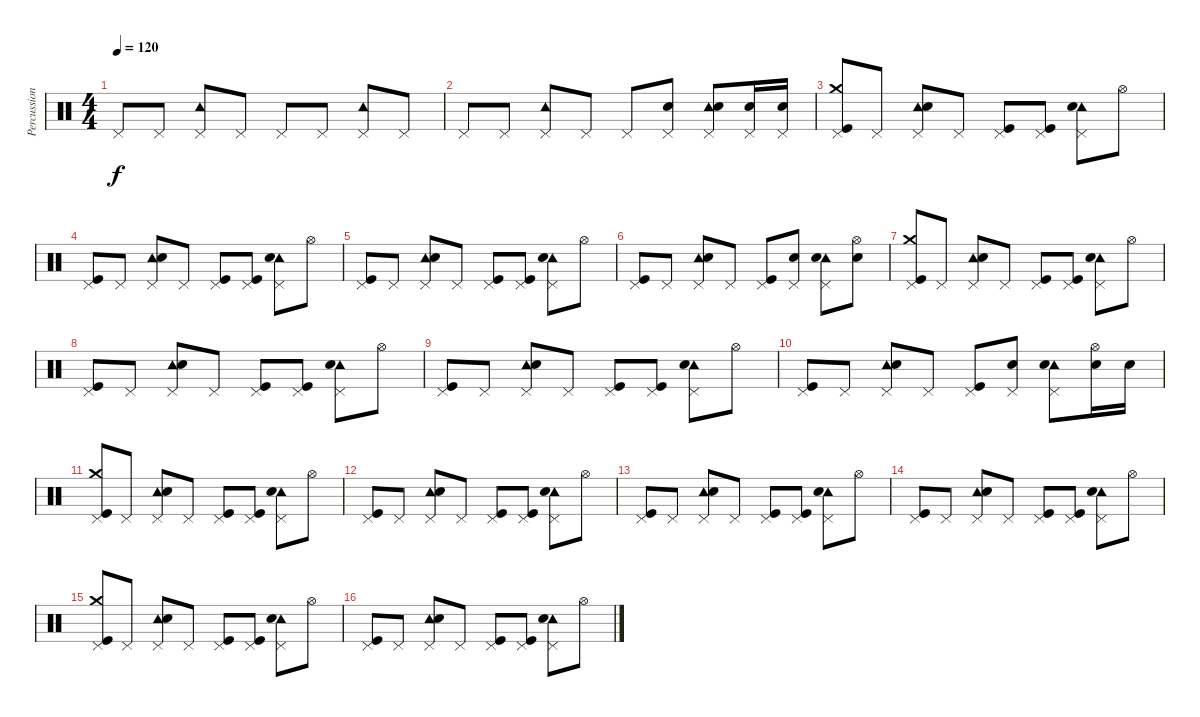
\track ("Percussioni" "Percussion") {instrument percussion}
\staff {score}
\articulation defaults
\ts (4 4)
\tempo 120
\clef neutral
\ks c "Pedal Hi-Hat (hit)".8{dy f} "Pedal Hi-Hat (hit)".8
("Pedal Hi-Hat (hit)" "Tambourine (hit)").8 "Pedal Hi-Hat (hit)".8 "Pedal Hi-Hat (hit)".8 "Pedal Hi-Hat (hit)".8 ("Pedal Hi-Hat (hit)" "Tambourine (hit)").8 "Pedal Hi-Hat (hit)".8 |
"Pedal Hi-Hat (hit)".8 "Pedal Hi-Hat (hit)".8 ("Pedal Hi-Hat (hit)" "Tambourine (hit)").8 "Pedal Hi-Hat (hit)".8 "Pedal Hi-Hat (hit)".8 ("Pedal Hi-Hat (hit)" "Electric Snare (hit)").8 ("Pedal Hi-Hat (hit)" "Tambourine (hit)" "Electric Snare (hit)").8 ("Pedal Hi-Hat (hit)" "Electric Snare (hit)").16 ("Pedal Hi-Hat (hit)" "Electric Snare (hit)").16 |
("Pedal Hi-Hat (hit)" "Crash medium (hit)" "Kick (hit)").8 "Pedal Hi-Hat (hit)".8 ("Pedal Hi-Hat (hit)" "Tambourine (hit)" "Electric Snare (hit)").8 "Pedal Hi-Hat (hit)".8 ("Pedal Hi-Hat (hit)" "Kick (hit)").8 ("Pedal Hi-Hat (hit)" "Kick (hit)").8 ("Pedal Hi-Hat (hit)" "Tambourine (hit)" "Electric Snare (hit)").8 "Hi-Hat (open)".8 |
("Pedal Hi-Hat (hit)" "Kick (hit)").8 "Pedal Hi-Hat (hit)".8 ("Pedal Hi-Hat (hit)" "Tambourine (hit)" "Electric Snare (hit)").8 "Pedal Hi-Hat (hit)".8 ("Pedal Hi-Hat (hit)" "Kick (hit)").8 ("Pedal Hi-Hat (hit)" "Kick (hit)").8 ("Pedal Hi-Hat (hit)" "Tambourine (hit)" "Electric Snare (hit)").8 "Hi-Hat (open)".8 |
("Pedal Hi-Hat (hit)" "Kick (hit)").8 "Pedal Hi-Hat (hit)".8 ("Pedal Hi-Hat (hit)" "Tambourine (hit)" "Electric Snare (hit)").8 "Pedal Hi-Hat (hit)".8 ("Pedal Hi-Hat (hit)" "Kick (hit)").8 ("Pedal Hi-Hat (hit)" "Kick (hit)").8 ("Pedal Hi-Hat (hit)" "Tambourine (hit)" "Electric Snare (hit)").8 "Hi-Hat (open)".8 |
("Pedal Hi-Hat (hit)" "Kick (hit)").8 "Pedal Hi-Hat (hit)".8 ("Pedal Hi-Hat (hit)" "Tambourine (hit)" "Electric Snare (hit)").8 "Pedal Hi-Hat (hit)".8 ("Pedal Hi-Hat (hit)" "Kick (hit)").8 ("Pedal Hi-Hat (hit)" "Electric Snare (hit)").8 ("Pedal Hi-Hat (hit)" "Tambourine (hit)" "Electric Snare (hit)").8 ("Hi-Hat (open)" "Electric Snare (hit)").8 |
("Pedal Hi-Hat (hit)" "Crash medium (hit)" "Kick (hit)").8 "Pedal Hi-Hat (hit)".8 ("Pedal Hi-Hat (hit)" "Tambourine (hit)" "Electric Snare (hit)").8 "Pedal Hi-Hat (hit)".8 ("Pedal Hi-Hat (hit)" "Kick (hit)").8 ("Pedal Hi-Hat (hit)" "Kick (hit)").8 ("Pedal Hi-Hat (hit)" "Tambourine (hit)" "Electric Snare (hit)").8 "Hi-Hat (open)".8 |
("Pedal Hi-Hat (hit)" "Kick (hit)").8 "Pedal Hi-Hat (hit)".8 ("Pedal Hi-Hat (hit)" "Tambourine (hit)" "Electric Snare (hit)").8 "Pedal Hi-Hat (hit)".8 ("Pedal Hi-Hat (hit)" "Kick (hit)").8 ("Pedal Hi-Hat (hit)" "Kick (hit)").8 ("Pedal Hi-Hat (hit)" "Tambourine (hit)" "Electric Snare (hit)").8 "Hi-Hat (open)".8 |
("Pedal Hi-Hat (hit)" "Kick (hit)").8 "Pedal Hi-Hat (hit)".8 ("Pedal Hi-Hat (hit)" "Tambourine (hit)" "Electric Snare (hit)").8 "Pedal Hi-Hat (hit)".8 ("Pedal Hi-Hat (hit)" "Kick (hit)").8 ("Pedal Hi-Hat (hit)" "Kick (hit)").8 ("Pedal Hi-Hat (hit)" "Tambourine (hit)" "Electric Snare (hit)").8 "Hi-Hat (open)".8 |
("Pedal Hi-Hat (hit)" "Kick (hit)").8 "Pedal Hi-Hat (hit)".8 ("Pedal Hi-Hat (hit)" "Tambourine (hit)" "Electric Snare (hit)").8 "Pedal Hi-Hat (hit)".8 ("Pedal Hi-Hat (hit)" "Kick (hit)").8 ("Pedal Hi-Hat (hit)" "Electric Snare (hit)").8 ("Pedal Hi-Hat (hit)" "Tambourine (hit)" "Electric Snare (hit)").8 ("Hi-Hat (open)" "Electric Snare (hit)").16 "Electric Snare (hit)".16 |
("Pedal Hi-Hat (hit)" "Crash medium (hit)" "Kick (hit)").8 "Pedal Hi-Hat (hit)".8 ("Pedal Hi-Hat (hit)" "Tambourine (hit)" "Electric Snare (hit)").8 "Pedal Hi-Hat (hit)".8 ("Pedal Hi-Hat (hit)" "Kick (hit)").8 ("Pedal Hi-Hat (hit)" "Kick (hit)").8 ("Pedal Hi-Hat (hit)" "Tambourine (hit)" "Electric Snare (hit)").8 "Hi-Hat (open)".8 |
("Pedal Hi-Hat (hit)" "Kick (hit)").8 "Pedal Hi-Hat (hit)".8 ("Pedal Hi-Hat (hit)" "Tambourine (hit)" "Electric Snare (hit)").8 "Pedal Hi-Hat (hit)".8 ("Pedal Hi-Hat (hit)" "Kick (hit)").8 ("Pedal Hi-Hat (hit)" "Kick (hit)").8 ("Pedal Hi-Hat (hit)" "Tambourine (hit)" "Electric Snare (hit)").8 "Hi-Hat (open)".8 |
("Pedal Hi-Hat (hit)" "Kick (hit)").8 "Pedal Hi-Hat (hit)".8 ("Pedal Hi-Hat (hit)" "Tambourine (hit)" "Electric Snare (hit)").8 "Pedal Hi-Hat (hit)".8 ("Pedal Hi-Hat (hit)" "Kick (hit)").8 ("Pedal Hi-Hat (hit)" "Kick (hit)").8 ("Pedal Hi-Hat (hit)" "Tambourine (hit)" "Electric Snare (hit)").8 "Hi-Hat (open)".8 |
("Pedal Hi-Hat (hit)" "Kick (hit)").8 "Pedal Hi-Hat (hit)".8 ("Pedal Hi-Hat (hit)" "Tambourine (hit)" "Electric Snare (hit)").8 "Pedal Hi-Hat (hit)".8 ("Pedal Hi-Hat (hit)" "Kick (hit)").8 ("Pedal Hi-Hat (hit)" "Kick (hit)").8 ("Pedal Hi-Hat (hit)" "Tambourine (hit)" "Electric Snare (hit)").8 "Hi-Hat (open)".8 |
("Pedal Hi-Hat (hit)" "Crash medium (hit)" "Kick (hit)").8 "Pedal Hi-Hat (hit)".8 ("Pedal Hi-Hat (hit)" "Tambourine (hit)" "Electric Snare (hit)").8 "Pedal Hi-Hat (hit)".8 ("Pedal Hi-Hat (hit)" "Kick (hit)").8 ("Pedal Hi-Hat (hit)" "Kick (hit)").8 ("Pedal Hi-Hat (hit)" "Tambourine (hit)" "Electric Snare (hit)").8 "Hi-Hat (open)".8 |
("Pedal Hi-Hat (hit)" "Kick (hit)").8 "Pedal Hi-Hat (hit)".8 ("Pedal Hi-Hat (hit)" "Tambourine (hit)" "Electric Snare (hit)").8 "Pedal Hi-Hat (hit)".8 ("Pedal Hi-Hat (hit)" "Kick (hit)").8 ("Pedal Hi-Hat (hit)" "Kick (hit)").8 ("Pedal Hi-Hat (hit)" "Tambourine (hit)" "Electric Snare (hit)").8 "Hi-Hat (open)".8
